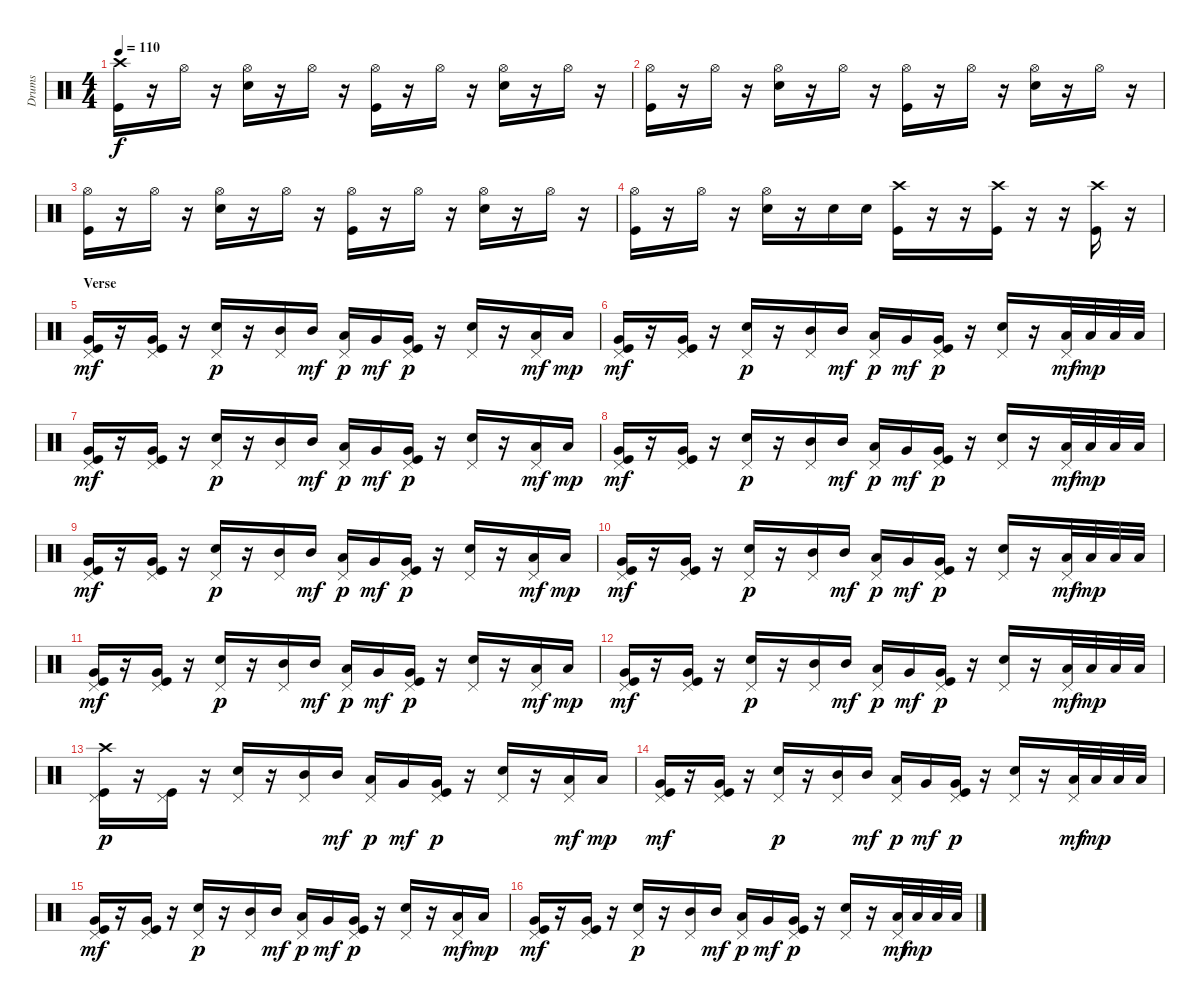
\track ("Drums" "Drums") {instrument percussion}
\staff {score}
\articulation defaults
\ts (4 4)
\tempo 110
\clef neutral
\ks c
("Crash high (hit)" "Kick (hit)").16{dy f} r.16 "Hi-Hat (open)".16 r.16 ("Hi-Hat (open)" "Snare (hit) 2").16 r.16 "Hi-Hat (open)".16 r.16 ("Hi-Hat (open)" "Kick (hit)").16 r.16 "Hi-Hat (open)".16 r.16 ("Hi-Hat (open)" "Snare (hit) 2").16 r.16 "Hi-Hat (open)".16 r.16 |
("Hi-Hat (open)" "Kick (hit)").16 r.16 "Hi-Hat (open)".16 r.16 ("Hi-Hat (open)" "Snare (hit) 2").16 r.16 "Hi-Hat (open)".16 r.16 ("Hi-Hat (open)" "Kick (hit)").16 r.16 "Hi-Hat (open)".16 r.16 ("Hi-Hat (open)" "Snare (hit) 2").16 r.16 "Hi-Hat (open)".16 r.16 |
("Hi-Hat (open)" "Kick (hit)").16 r.16 "Hi-Hat (open)".16 r.16 ("Hi-Hat (open)" "Snare (hit) 2").16 r.16 "Hi-Hat (open)".16 r.16 ("Hi-Hat (open)" "Kick (hit)").16 r.16 "Hi-Hat (open)".16 r.16 ("Hi-Hat (open)" "Snare (hit) 2").16 r.16 "Hi-Hat (open)".16 r.16 |
("Hi-Hat (open)" "Kick (hit)").16 r.16 "Hi-Hat (open)".16 r.16 ("Hi-Hat (open)" "Snare (hit) 2").16 r.16 "Snare (hit) 2".16 "Snare (hit) 2".16 ("Crash high (hit)" "Kick (hit)").16 r.16 r.16 ("Crash high (hit)" "Kick (hit)").16 r.16 r.16 ("Crash high (hit)" "Kick (hit)").16 r.16 |
\section ("" "Verse")
("Pedal Hi-Hat (hit)" "Very Low Tom (hit)" "Kick (hit)").16{dy mf} r.16 ("Pedal Hi-Hat (hit)" "Very Low Tom (hit)" "Kick (hit)").16 r.16 ("Pedal Hi-Hat (hit)" "Snare (hit) 2").16{dy p} r.16 ("Pedal Hi-Hat (hit)" "Mid Tom (hit)").16 "Mid Tom (hit)".16{dy mf} ("Pedal Hi-Hat (hit)" "Low Tom (hit)").16{dy p} "Very Low Tom (hit)".16{dy mf} ("Pedal Hi-Hat (hit)" "Very Low Tom (hit)" "Kick (hit)").16{dy p} r.16 ("Pedal Hi-Hat (hit)" "Snare (hit) 2").16 r.16 ("Pedal Hi-Hat (hit)" "Low Tom (hit)").16{dy mf} "Low Tom (hit)".16{dy mp} |
("Pedal Hi-Hat (hit)" "Very Low Tom (hit)" "Kick (hit)").16{dy mf} r.16 ("Pedal Hi-Hat (hit)" "Very Low Tom (hit)" "Kick (hit)").16 r.16 ("Pedal Hi-Hat (hit)" "Snare (hit) 2").16{dy p} r.16 ("Pedal Hi-Hat (hit)" "Mid Tom (hit)").16 "Mid Tom (hit)".16{dy mf} ("Pedal Hi-Hat (hit)" "Low Tom (hit)").16{dy p} "Very Low Tom (hit)".16{dy mf} ("Pedal Hi-Hat (hit)" "Very Low Tom (hit)" "Kick (hit)").16{dy p} r.16 ("Pedal Hi-Hat (hit)" "Snare (hit) 2").16 r.16 ("Pedal Hi-Hat (hit)" "Low Tom (hit)").32{dy mf} "Low Tom (hit)".32{dy mp} "Low Tom (hit)".32 "Low Tom (hit)".32 |
("Pedal Hi-Hat (hit)" "Very Low Tom (hit)" "Kick (hit)").16{dy mf} r.16 ("Pedal Hi-Hat (hit)" "Very Low Tom (hit)" "Kick (hit)").16 r.16 ("Pedal Hi-Hat (hit)" "Snare (hit) 2").16{dy p} r.16 ("Pedal Hi-Hat (hit)" "Mid Tom (hit)").16 "Mid Tom (hit)".16{dy mf} ("Pedal Hi-Hat (hit)" "Low Tom (hit)").16{dy p} "Very Low Tom (hit)".16{dy mf} ("Pedal Hi-Hat (hit)" "Very Low Tom (hit)" "Kick (hit)").16{dy p} r.16 ("Pedal Hi-Hat (hit)" "Snare (hit) 2").16 r.16 ("Pedal Hi-Hat (hit)" "Low Tom (hit)").16{dy mf} "Low Tom (hit)".16{dy mp} |
("Pedal Hi-Hat (hit)" "Very Low Tom (hit)" "Kick (hit)").16{dy mf} r.16 ("Pedal Hi-Hat (hit)" "Very Low Tom (hit)" "Kick (hit)").16 r.16 ("Pedal Hi-Hat (hit)" "Snare (hit) 2").16{dy p} r.16 ("Pedal Hi-Hat (hit)" "Mid Tom (hit)").16 "Mid Tom (hit)".16{dy mf} ("Pedal Hi-Hat (hit)" "Low Tom (hit)").16{dy p} "Very Low Tom (hit)".16{dy mf} ("Pedal Hi-Hat (hit)" "Very Low Tom (hit)" "Kick (hit)").16{dy p} r.16 ("Pedal Hi-Hat (hit)" "Snare (hit) 2").16 r.16 ("Pedal Hi-Hat (hit)" "Low Tom (hit)").32{dy mf} "Low Tom (hit)".32{dy mp} "Low Tom (hit)".32 "Low Tom (hit)".32 |
("Pedal Hi-Hat (hit)" "Very Low Tom (hit)" "Kick (hit)").16{dy mf} r.16 ("Pedal Hi-Hat (hit)" "Very Low Tom (hit)" "Kick (hit)").16 r.16 ("Pedal Hi-Hat (hit)" "Snare (hit) 2").16{dy p} r.16 ("Pedal Hi-Hat (hit)" "Mid Tom (hit)").16 "Mid Tom (hit)".16{dy mf} ("Pedal Hi-Hat (hit)" "Low Tom (hit)").16{dy p} "Very Low Tom (hit)".16{dy mf} ("Pedal Hi-Hat (hit)" "Very Low Tom (hit)" "Kick (hit)").16{dy p} r.16 ("Pedal Hi-Hat (hit)" "Snare (hit) 2").16 r.16 ("Pedal Hi-Hat (hit)" "Low Tom (hit)").16{dy mf} "Low Tom (hit)".16{dy mp} |
("Pedal Hi-Hat (hit)" "Very Low Tom (hit)" "Kick (hit)").16{dy mf} r.16 ("Pedal Hi-Hat (hit)" "Very Low Tom (hit)" "Kick (hit)").16 r.16 ("Pedal Hi-Hat (hit)" "Snare (hit) 2").16{dy p} r.16 ("Pedal Hi-Hat (hit)" "Mid Tom (hit)").16 "Mid Tom (hit)".16{dy mf} ("Pedal Hi-Hat (hit)" "Low Tom (hit)").16{dy p} "Very Low Tom (hit)".16{dy mf} ("Pedal Hi-Hat (hit)" "Very Low Tom (hit)" "Kick (hit)").16{dy p} r.16 ("Pedal Hi-Hat (hit)" "Snare (hit) 2").16 r.16 ("Pedal Hi-Hat (hit)" "Low Tom (hit)").32{dy mf} "Low Tom (hit)".32{dy mp} "Low Tom (hit)".32 "Low Tom (hit)".32 |
("Pedal Hi-Hat (hit)" "Very Low Tom (hit)" "Kick (hit)").16{dy mf} r.16 ("Pedal Hi-Hat (hit)" "Very Low Tom (hit)" "Kick (hit)").16 r.16 ("Pedal Hi-Hat (hit)" "Snare (hit) 2").16{dy p} r.16 ("Pedal Hi-Hat (hit)" "Mid Tom (hit)").16 "Mid Tom (hit)".16{dy mf} ("Pedal Hi-Hat (hit)" "Low Tom (hit)").16{dy p} "Very Low Tom (hit)".16{dy mf} ("Pedal Hi-Hat (hit)" "Very Low Tom (hit)" "Kick (hit)").16{dy p} r.16 ("Pedal Hi-Hat (hit)" "Snare (hit) 2").16 r.16 ("Pedal Hi-Hat (hit)" "Low Tom (hit)").16{dy mf} "Low Tom (hit)".16{dy mp} |
("Pedal Hi-Hat (hit)" "Very Low Tom (hit)" "Kick (hit)").16{dy mf} r.16 ("Pedal Hi-Hat (hit)" "Very Low Tom (hit)" "Kick (hit)").16 r.16 ("Pedal Hi-Hat (hit)" "Snare (hit) 2").16{dy p} r.16 ("Pedal Hi-Hat (hit)" "Mid Tom (hit)").16 "Mid Tom (hit)".16{dy mf} ("Pedal Hi-Hat (hit)" "Low Tom (hit)").16{dy p} "Very Low Tom (hit)".16{dy mf} ("Pedal Hi-Hat (hit)" "Very Low Tom (hit)" "Kick (hit)").16{dy p} r.16 ("Pedal Hi-Hat (hit)" "Snare (hit) 2").16 r.16 ("Pedal Hi-Hat (hit)" "Low Tom (hit)").32{dy mf} "Low Tom (hit)".32{dy mp} "Low Tom (hit)".32 "Low Tom (hit)".32 |
("Crash high (hit)" "Pedal Hi-Hat (hit)" "Kick (hit)").16{dy p} r.16 ("Pedal Hi-Hat (hit)" "Kick (hit)").16 r.16 ("Pedal Hi-Hat (hit)" "Snare (hit) 2").16 r.16 ("Pedal Hi-Hat (hit)" "Mid Tom (hit)").16 "Mid Tom (hit)".16{dy mf} ("Pedal Hi-Hat (hit)" "Low Tom (hit)").16{dy p} "Very Low Tom (hit)".16{dy mf} ("Pedal Hi-Hat (hit)" "Very Low Tom (hit)" "Kick (hit)").16{dy p} r.16 ("Pedal Hi-Hat (hit)" "Snare (hit) 2").16 r.16 ("Pedal Hi-Hat (hit)" "Low Tom (hit)").16{dy mf} "Low Tom (hit)".16{dy mp} |
("Pedal Hi-Hat (hit)" "Very Low Tom (hit)" "Kick (hit)").16{dy mf} r.16 ("Pedal Hi-Hat (hit)" "Very Low Tom (hit)" "Kick (hit)").16 r.16 ("Pedal Hi-Hat (hit)" "Snare (hit) 2").16{dy p} r.16 ("Pedal Hi-Hat (hit)" "Mid Tom (hit)").16 "Mid Tom (hit)".16{dy mf} ("Pedal Hi-Hat (hit)" "Low Tom (hit)").16{dy p} "Very Low Tom (hit)".16{dy mf} ("Pedal Hi-Hat (hit)" "Very Low Tom (hit)" "Kick (hit)").16{dy p} r.16 ("Pedal Hi-Hat (hit)" "Snare (hit) 2").16 r.16 ("Pedal Hi-Hat (hit)" "Low Tom (hit)").32{dy mf} "Low Tom (hit)".32{dy mp} "Low Tom (hit)".32 "Low Tom (hit)".32 |
("Pedal Hi-Hat (hit)" "Very Low Tom (hit)" "Kick (hit)").16{dy mf} r.16 ("Pedal Hi-Hat (hit)" "Very Low Tom (hit)" "Kick (hit)").16 r.16 ("Pedal Hi-Hat (hit)" "Snare (hit) 2").16{dy p} r.16 ("Pedal Hi-Hat (hit)" "Mid Tom (hit)").16 "Mid Tom (hit)".16{dy mf} ("Pedal Hi-Hat (hit)" "Low Tom (hit)").16{dy p} "Very Low Tom (hit)".16{dy mf} ("Pedal Hi-Hat (hit)" "Very Low Tom (hit)" "Kick (hit)").16{dy p} r.16 ("Pedal Hi-Hat (hit)" "Snare (hit) 2").16 r.16 ("Pedal Hi-Hat (hit)" "Low Tom (hit)").16{dy mf} "Low Tom (hit)".16{dy mp} |
("Pedal Hi-Hat (hit)" "Very Low Tom (hit)" "Kick (hit)").16{dy mf} r.16 ("Pedal Hi-Hat (hit)" "Very Low Tom (hit)" "Kick (hit)").16 r.16 ("Pedal Hi-Hat (hit)" "Snare (hit) 2").16{dy p} r.16 ("Pedal Hi-Hat (hit)" "Mid Tom (hit)").16 "Mid Tom (hit)".16{dy mf} ("Pedal Hi-Hat (hit)" "Low Tom (hit)").16{dy p} "Very Low Tom (hit)".16{dy mf} ("Pedal Hi-Hat (hit)" "Very Low Tom (hit)" "Kick (hit)").16{dy p} r.16 ("Pedal Hi-Hat (hit)" "Snare (hit) 2").16 r.16 ("Pedal Hi-Hat (hit)" "Low Tom (hit)").32{dy mf} "Low Tom (hit)".32{dy mp} "Low Tom (hit)".32 "Low Tom (hit)".32
